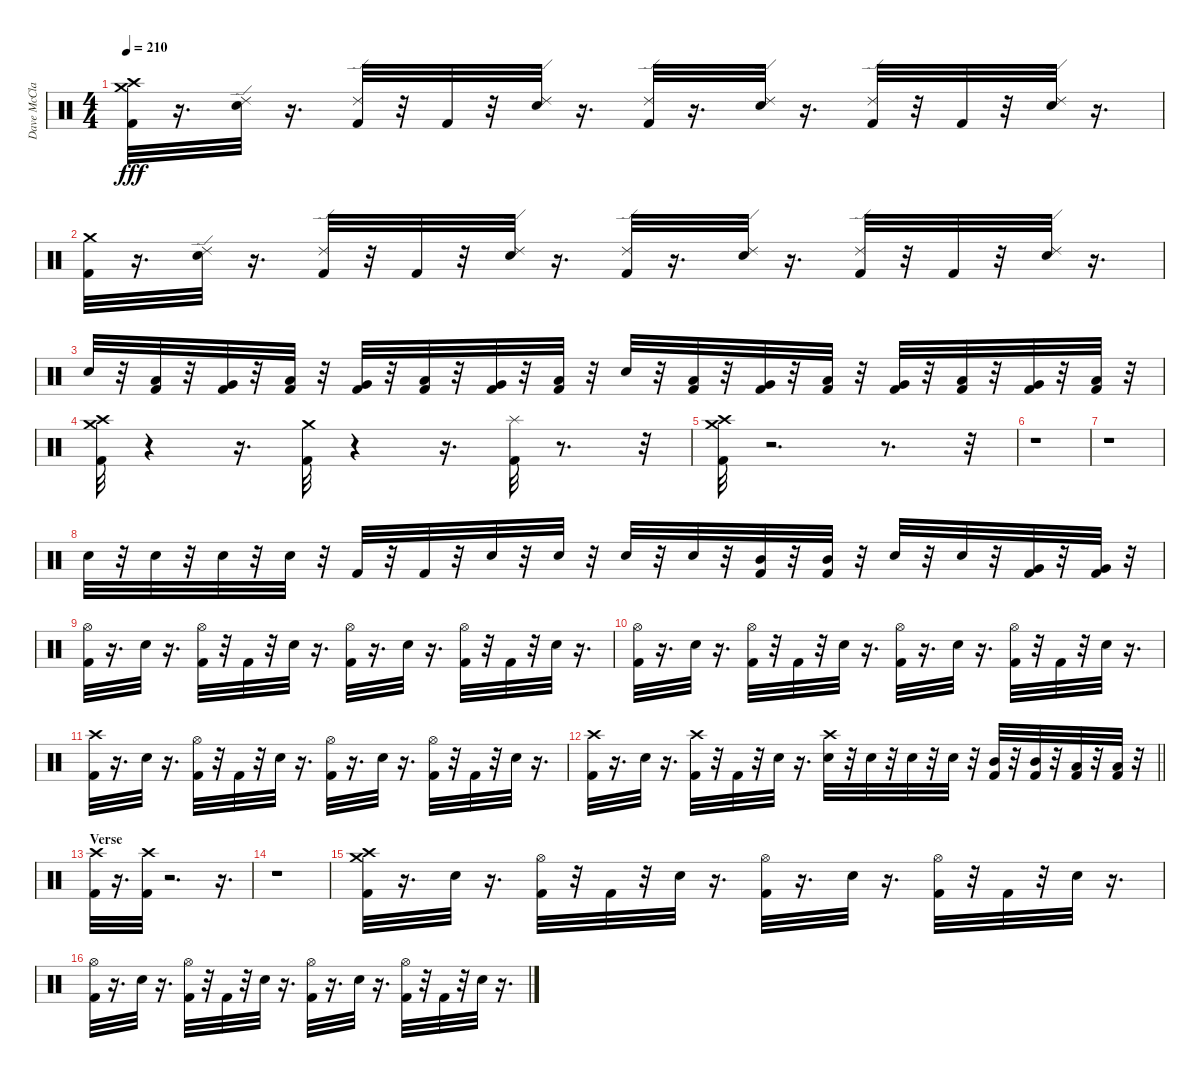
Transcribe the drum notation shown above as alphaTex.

\track ("Dave McClain" "Dave McCla") {instrument percussion}
\staff {score}
\articulation defaults
\ts (4 4)
\tempo 210
\clef neutral
\ks c
("Kick (hit) 2" "Crash high (hit)" "Crash medium (hit)").32{dy fff} r.16{d} ("Snare (hit) 2" "Ride (edge) 2").32 r.16{d} ("Kick (hit) 2" "Ride (edge) 2").32 r.32 "Kick (hit) 2".32 r.32 ("Snare (hit) 2" "Ride (edge) 2").32 r.16{d} ("Kick (hit) 2" "Ride (edge) 2").32 r.16{d} ("Snare (hit) 2" "Ride (edge) 2").32 r.16{d} ("Kick (hit) 2" "Ride (edge) 2").32 r.32 "Kick (hit) 2".32 r.32 ("Snare (hit) 2" "Ride (edge) 2").32 r.16{d} |
("Kick (hit) 2" "Crash medium (hit)").32 r.16{d} ("Snare (hit) 2" "Ride (edge) 2").32 r.16{d} ("Kick (hit) 2" "Ride (edge) 2").32 r.32 "Kick (hit) 2".32 r.32 ("Snare (hit) 2" "Ride (edge) 2").32 r.16{d} ("Kick (hit) 2" "Ride (edge) 2").32 r.16{d} ("Snare (hit) 2" "Ride (edge) 2").32 r.16{d} ("Kick (hit) 2" "Ride (edge) 2").32 r.32 "Kick (hit) 2".32 r.32 ("Snare (hit) 2" "Ride (edge) 2").32 r.16{d} |
"Snare (hit) 2".32 r.32 ("Kick (hit) 2" "Low Tom (hit)").32 r.32 ("Kick (hit) 2" "Very Low Tom (hit)").32 r.32 ("Kick (hit) 2" "Low Tom (hit)").32 r.32 ("Kick (hit) 2" "Very Low Tom (hit)").32 r.32 ("Kick (hit) 2" "Low Tom (hit)").32 r.32 ("Kick (hit) 2" "Very Low Tom (hit)").32 r.32 ("Kick (hit) 2" "Low Tom (hit)").32 r.32 "Snare (hit) 2".32 r.32 ("Kick (hit) 2" "Low Tom (hit)").32 r.32 ("Kick (hit) 2" "Very Low Tom (hit)").32 r.32 ("Kick (hit) 2" "Low Tom (hit)").32 r.32 ("Kick (hit) 2" "Very Low Tom (hit)").32 r.32 ("Kick (hit) 2" "Low Tom (hit)").32 r.32 ("Kick (hit) 2" "Very Low Tom (hit)").32 r.32 ("Kick (hit) 2" "Low Tom (hit)").32 r.32 |
("Kick (hit) 2" "Crash high (hit)" "Crash medium (hit)").32 r.4 r.16{d} ("Kick (hit) 2" "Crash medium (hit)").32 r.4 r.16{d} ("Kick (hit) 2" "Splash (hit)").32 r.8{d} r.32 |
("Crash medium (hit)" "Crash high (hit)" "Kick (hit) 2").32 r.2{d} r.8{d} r.32 |
r.1 |
r.1 |
"Snare (hit) 2".32 r.32 "Snare (hit) 2".32 r.32 "Snare (hit) 2".32 r.32 "Snare (hit) 2".32 r.32 "Kick (hit) 2".32 r.32 "Kick (hit) 2".32 r.32 "Snare (hit) 2".32 r.32 "Snare (hit) 2".32 r.32 "Snare (hit) 2".32 r.32 "Snare (hit) 2".32 r.32 ("Kick (hit) 2" "Mid Tom (hit)").32 r.32 ("Kick (hit) 2" "Mid Tom (hit)").32 r.32 "Snare (hit) 2".32 r.32 "Snare (hit) 2".32 r.32 ("Kick (hit) 2" "Very Low Tom (hit)").32 r.32 ("Kick (hit) 2" "Very Low Tom (hit)").32 r.32 |
("Hi-Hat (open)" "Kick (hit) 2").32 r.16{d} "Snare (hit) 2".32 r.16{d} ("Kick (hit) 2" "Hi-Hat (open)").32 r.32 "Kick (hit) 2".32 r.32 "Snare (hit) 2".32 r.16{d} ("Hi-Hat (open)" "Kick (hit) 2").32 r.16{d} "Snare (hit) 2".32 r.16{d} ("Hi-Hat (open)" "Kick (hit) 2").32 r.32 "Kick (hit) 2".32 r.32 "Snare (hit) 2".32 r.16{d} |
("Hi-Hat (open)" "Kick (hit) 2").32 r.16{d} "Snare (hit) 2".32 r.16{d} ("Hi-Hat (open)" "Kick (hit) 2").32 r.32 "Kick (hit) 2".32 r.32 "Snare (hit) 2".32 r.16{d} ("Hi-Hat (open)" "Kick (hit) 2").32 r.16{d} "Snare (hit) 2".32 r.16{d} ("Hi-Hat (open)" "Kick (hit) 2").32 r.32 "Kick (hit) 2".32 r.32 "Snare (hit) 2".32 r.16{d} |
("Crash high (hit)" "Kick (hit) 2").32 r.16{d} "Snare (hit) 2".32 r.16{d} ("Hi-Hat (open)" "Kick (hit) 2").32 r.32 "Kick (hit) 2".32 r.32 "Snare (hit) 2".32 r.16{d} ("Hi-Hat (open)" "Kick (hit) 2").32 r.16{d} "Snare (hit) 2".32 r.16{d} ("Hi-Hat (open)" "Kick (hit) 2").32 r.32 "Kick (hit) 2".32 r.32 "Snare (hit) 2".32 r.16{d} |
\barLineRight lightlight
("Crash high (hit)" "Kick (hit) 2").32 r.16{d} "Snare (hit) 2".32 r.16{d} ("Crash high (hit)" "Kick (hit) 2").32 r.32 "Kick (hit) 2".32 r.32 "Snare (hit) 2".32 r.16{d} ("Crash high (hit)" "Snare (hit) 2").32 r.32 "Snare (hit) 2".32 r.32 "Snare (hit) 2".32 r.32 "Snare (hit) 2".32 r.32 ("Mid Tom (hit)" "Kick (hit) 2").32 r.32 ("Mid Tom (hit)" "Kick (hit) 2").32 r.32 ("Low Tom (hit)" "Kick (hit) 2").32 r.32 ("Low Tom (hit)" "Kick (hit) 2").32 r.32 |
\section ("" "Verse")
("Crash high (hit)" "Kick (hit) 2").32 r.16{d} ("Crash high (hit)" "Kick (hit) 2").32 r.2{d} r.16{d} |
r.1 |
("Crash medium (hit)" "Crash high (hit)" "Kick (hit) 2").32 r.16{d} "Snare (hit) 2".32 r.16{d} ("Kick (hit) 2" "Hi-Hat (open)").32 r.32 "Kick (hit) 2".32 r.32 "Snare (hit) 2".32 r.16{d} ("Hi-Hat (open)" "Kick (hit) 2").32 r.16{d} "Snare (hit) 2".32 r.16{d} ("Hi-Hat (open)" "Kick (hit) 2").32 r.32 "Kick (hit) 2".32 r.32 "Snare (hit) 2".32 r.16{d} |
("Hi-Hat (open)" "Kick (hit) 2").32 r.16{d} "Snare (hit) 2".32 r.16{d} ("Hi-Hat (open)" "Kick (hit) 2").32 r.32 "Kick (hit) 2".32 r.32 "Snare (hit) 2".32 r.16{d} ("Hi-Hat (open)" "Kick (hit) 2").32 r.16{d} "Snare (hit) 2".32 r.16{d} ("Hi-Hat (open)" "Kick (hit) 2").32 r.32 "Kick (hit) 2".32 r.32 "Snare (hit) 2".32 r.16{d}
